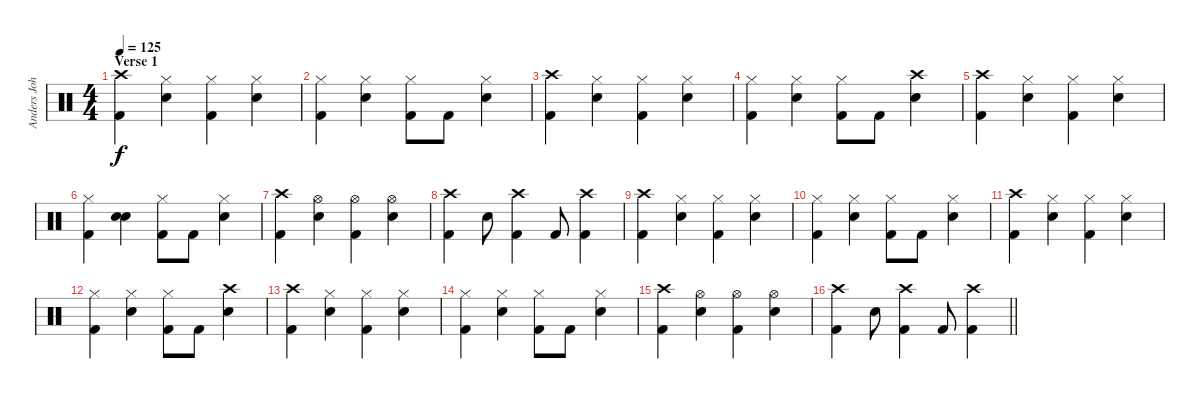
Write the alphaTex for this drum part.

\track ("Anders Johansson" "Anders Joh") {instrument percussion}
\staff {score}
\articulation defaults
\ts (4 4)
\section ("" "Verse 1")
\tempo 125
\clef neutral
\ks c
("Kick (hit) 2" "Crash high (hit)").4{dy f} ("Electric Snare (hit)" "Hi-Hat (closed)").4 ("Kick (hit) 2" "Hi-Hat (closed)").4 ("Electric Snare (hit)" "Hi-Hat (closed)").4 |
("Kick (hit) 2" "Hi-Hat (closed)").4 ("Electric Snare (hit)" "Hi-Hat (closed)").4 ("Kick (hit) 2" "Hi-Hat (closed)").8 "Kick (hit) 2".8 ("Hi-Hat (closed)" "Electric Snare (hit)").4 |
("Kick (hit) 2" "Crash high (hit)").4 ("Electric Snare (hit)" "Hi-Hat (closed)").4 ("Kick (hit) 2" "Hi-Hat (closed)").4 ("Electric Snare (hit)" "Hi-Hat (closed)").4 |
("Kick (hit) 2" "Hi-Hat (closed)").4 ("Electric Snare (hit)" "Hi-Hat (closed)").4 ("Kick (hit) 2" "Hi-Hat (closed)").8 "Kick (hit) 2".8 ("Crash high (hit)" "Electric Snare (hit)").4 |
("Kick (hit) 2" "Crash high (hit)").4 ("Electric Snare (hit)" "Hi-Hat (closed)").4 ("Kick (hit) 2" "Hi-Hat (closed)").4 ("Electric Snare (hit)" "Hi-Hat (closed)").4 |
("Kick (hit) 2" "Hi-Hat (closed)").4 ("Electric Snare (hit)" "Snare (hit)").4 ("Kick (hit) 2" "Hi-Hat (closed)").8 "Kick (hit) 2".8 ("Hi-Hat (closed)" "Electric Snare (hit)").4 |
("Kick (hit) 2" "Crash high (hit)").4 ("Electric Snare (hit)" "Hi-Hat (open)").4 ("Kick (hit) 2" "Hi-Hat (open)").4 ("Electric Snare (hit)" "Hi-Hat (open)").4 |
("Kick (hit) 2" "Crash high (hit)").4 "Electric Snare (hit)".8 ("Kick (hit) 2" "Crash high (hit)").4 "Kick (hit) 2".8 ("Kick (hit) 2" "Crash high (hit)").4 |
("Kick (hit) 2" "Crash high (hit)").4 ("Electric Snare (hit)" "Hi-Hat (closed)").4 ("Kick (hit) 2" "Hi-Hat (closed)").4 ("Electric Snare (hit)" "Hi-Hat (closed)").4 |
("Kick (hit) 2" "Hi-Hat (closed)").4 ("Electric Snare (hit)" "Hi-Hat (closed)").4 ("Kick (hit) 2" "Hi-Hat (closed)").8 "Kick (hit) 2".8 ("Hi-Hat (closed)" "Electric Snare (hit)").4 |
("Kick (hit) 2" "Crash high (hit)").4 ("Electric Snare (hit)" "Hi-Hat (closed)").4 ("Kick (hit) 2" "Hi-Hat (closed)").4 ("Electric Snare (hit)" "Hi-Hat (closed)").4 |
("Kick (hit) 2" "Hi-Hat (closed)").4 ("Electric Snare (hit)" "Hi-Hat (closed)").4 ("Kick (hit) 2" "Hi-Hat (closed)").8 "Kick (hit) 2".8 ("Crash high (hit)" "Electric Snare (hit)").4 |
("Kick (hit) 2" "Crash high (hit)").4 ("Electric Snare (hit)" "Hi-Hat (closed)").4 ("Kick (hit) 2" "Hi-Hat (closed)").4 ("Electric Snare (hit)" "Hi-Hat (closed)").4 |
("Kick (hit) 2" "Hi-Hat (closed)").4 ("Electric Snare (hit)" "Hi-Hat (closed)").4 ("Kick (hit) 2" "Hi-Hat (closed)").8 "Kick (hit) 2".8 ("Hi-Hat (closed)" "Electric Snare (hit)").4 |
("Kick (hit) 2" "Crash high (hit)").4 ("Electric Snare (hit)" "Hi-Hat (open)").4 ("Kick (hit) 2" "Hi-Hat (open)").4 ("Electric Snare (hit)" "Hi-Hat (open)").4 |
\barLineRight lightlight
("Kick (hit) 2" "Crash high (hit)").4 "Electric Snare (hit)".8 ("Kick (hit) 2" "Crash high (hit)").4 "Kick (hit) 2".8 ("Kick (hit) 2" "Crash high (hit)").4
